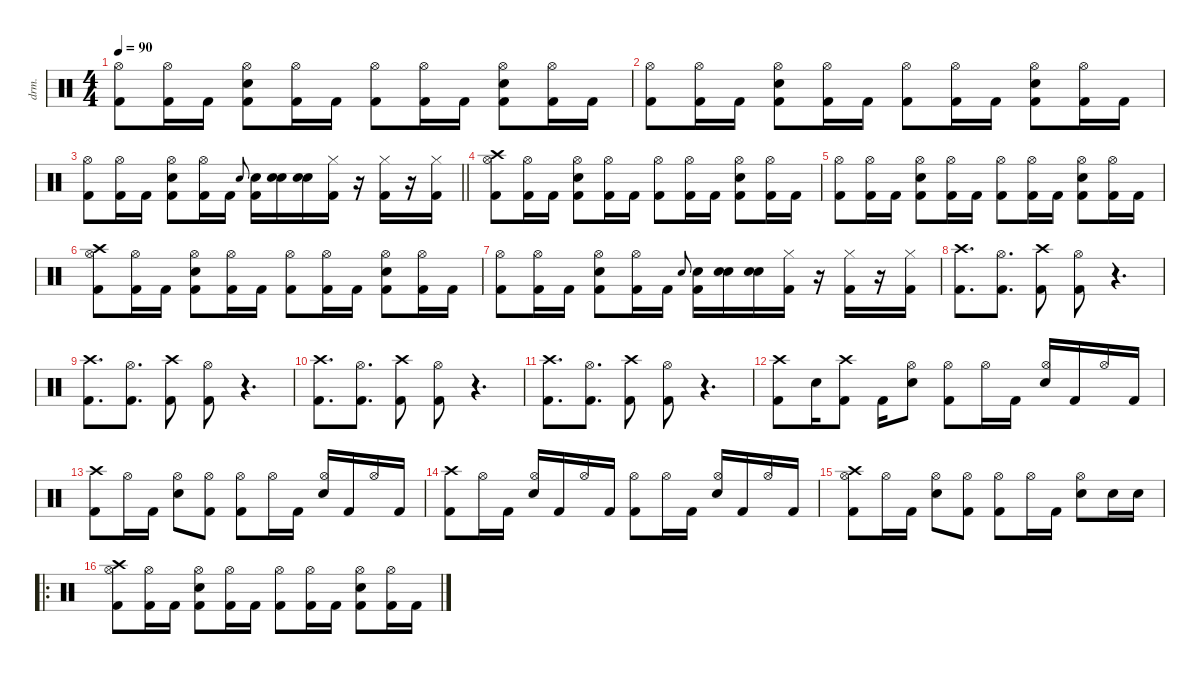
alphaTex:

\defaultSystemsLayout 4
\hideDynamics
\bracketExtendMode nobrackets
\otherSystemsTrackNameOrientation horizontal
\track ("Percussion " "drm.") {instrument percussion}
\staff {score}
\articulation defaults
\ts (4 4)
\tempo 90
\clef neutral
\ks c
("Hi-Hat (open)" "Kick (hit) 2").8{dy f beam Down} ("Hi-Hat (open)" "Kick (hit) 2").16{beam Down} "Kick (hit) 2".16{beam Down} ("Hi-Hat (open)" "Snare (hit) 2" "Kick (hit) 2").8{beam Down} ("Hi-Hat (open)" "Kick (hit) 2").16{beam Down} "Kick (hit) 2".16{beam Down} ("Hi-Hat (open)" "Kick (hit) 2").8{beam Down} ("Hi-Hat (open)" "Kick (hit) 2").16{beam Down} "Kick (hit) 2".16{beam Down} ("Hi-Hat (open)" "Snare (hit) 2" "Kick (hit) 2").8{beam Down} ("Hi-Hat (open)" "Kick (hit) 2").16{beam Down} "Kick (hit) 2".16{beam Down} |
("Hi-Hat (open)" "Kick (hit) 2").8{beam Down} ("Hi-Hat (open)" "Kick (hit) 2").16{beam Down} "Kick (hit) 2".16{beam Down} ("Hi-Hat (open)" "Snare (hit) 2" "Kick (hit) 2").8{beam Down} ("Hi-Hat (open)" "Kick (hit) 2").16{beam Down} "Kick (hit) 2".16{beam Down} ("Hi-Hat (open)" "Kick (hit) 2").8{beam Down} ("Hi-Hat (open)" "Kick (hit) 2").16{beam Down} "Kick (hit) 2".16{beam Down} ("Hi-Hat (open)" "Snare (hit) 2" "Kick (hit) 2").8{beam Down} ("Hi-Hat (open)" "Kick (hit) 2").16{beam Down} "Kick (hit) 2".16{beam Down} |
\barLineRight lightlight
("Hi-Hat (open)" "Kick (hit) 2").8{beam Down} ("Hi-Hat (open)" "Kick (hit) 2").16{beam Down} "Kick (hit) 2".16{beam Down} ("Hi-Hat (open)" "Snare (hit) 2" "Kick (hit) 2").8{beam Down} ("Hi-Hat (open)" "Kick (hit) 2").16{beam Down} "Kick (hit) 2".16{beam Down} "Snare (hit) 2".8{gr onbeat dy mf beam Up} ("Snare (hit) 2" "Kick (hit) 2").16{dy f beam Down} ("Snare (hit) 2" "Snare (hit) 2").16{beam Down} ("Snare (hit) 2" "Snare (hit) 2").16{beam Down} ("Hi-Hat (closed)" "Kick (hit) 2").16{beam Down} r.16{beam Down} ("Hi-Hat (closed)" "Kick (hit) 2").16{beam Down} r.16{beam Down} ("Hi-Hat (closed)" "Kick (hit) 2").16{beam Down} |
("Crash high (hit)" "Hi-Hat (open)" "Kick (hit) 2").8{beam Down} ("Hi-Hat (open)" "Kick (hit) 2").16{beam Down} "Kick (hit) 2".16{beam Down} ("Hi-Hat (open)" "Snare (hit) 2" "Kick (hit) 2").8{beam Down} ("Hi-Hat (open)" "Kick (hit) 2").16{beam Down} "Kick (hit) 2".16{beam Down} ("Hi-Hat (open)" "Kick (hit) 2").8{beam Down} ("Hi-Hat (open)" "Kick (hit) 2").16{beam Down} "Kick (hit) 2".16{beam Down} ("Hi-Hat (open)" "Snare (hit) 2" "Kick (hit) 2").8{beam Down} ("Hi-Hat (open)" "Kick (hit) 2").16{beam Down} "Kick (hit) 2".16{beam Down} |
("Hi-Hat (open)" "Kick (hit) 2").8{beam Down} ("Hi-Hat (open)" "Kick (hit) 2").16{beam Down} "Kick (hit) 2".16{beam Down} ("Hi-Hat (open)" "Snare (hit) 2" "Kick (hit) 2").8{beam Down} ("Hi-Hat (open)" "Kick (hit) 2").16{beam Down} "Kick (hit) 2".16{beam Down} ("Hi-Hat (open)" "Kick (hit) 2").8{beam Down} ("Hi-Hat (open)" "Kick (hit) 2").16{beam Down} "Kick (hit) 2".16{beam Down} ("Hi-Hat (open)" "Snare (hit) 2" "Kick (hit) 2").8{beam Down} ("Hi-Hat (open)" "Kick (hit) 2").16{beam Down} "Kick (hit) 2".16{beam Down} |
("Crash high (hit)" "Hi-Hat (open)" "Kick (hit) 2").8{beam Down} ("Hi-Hat (open)" "Kick (hit) 2").16{beam Down} "Kick (hit) 2".16{beam Down} ("Hi-Hat (open)" "Snare (hit) 2" "Kick (hit) 2").8{beam Down} ("Hi-Hat (open)" "Kick (hit) 2").16{beam Down} "Kick (hit) 2".16{beam Down} ("Hi-Hat (open)" "Kick (hit) 2").8{beam Down} ("Hi-Hat (open)" "Kick (hit) 2").16{beam Down} "Kick (hit) 2".16{beam Down} ("Hi-Hat (open)" "Snare (hit) 2" "Kick (hit) 2").8{beam Down} ("Hi-Hat (open)" "Kick (hit) 2").16{beam Down} "Kick (hit) 2".16{beam Down} |
("Hi-Hat (open)" "Kick (hit) 2").8{beam Down} ("Hi-Hat (open)" "Kick (hit) 2").16{beam Down} "Kick (hit) 2".16{beam Down} ("Hi-Hat (open)" "Snare (hit) 2" "Kick (hit) 2").8{beam Down} ("Hi-Hat (open)" "Kick (hit) 2").16{beam Down} "Kick (hit) 2".16{beam Down} "Snare (hit) 2".8{gr onbeat dy mf beam Up} ("Snare (hit) 2" "Kick (hit) 2").16{dy f beam Down} ("Snare (hit) 2" "Snare (hit) 2").16{beam Down} ("Snare (hit) 2" "Snare (hit) 2").16{beam Down} ("Hi-Hat (closed)" "Kick (hit) 2").16{beam Down} r.16{beam Down} ("Hi-Hat (closed)" "Kick (hit) 2").16{beam Down} r.16{beam Down} ("Hi-Hat (closed)" "Kick (hit) 2").16{beam Down} |
("Crash high (hit)" "Kick (hit) 2").8{d beam Down} ("Hi-Hat (open)" "Kick (hit) 2").8{d beam Down} ("Crash high (hit)" "Kick (hit) 2").8{beam Down} ("Hi-Hat (open)" "Kick (hit) 2").8{beam Down} r.4{d beam Down} |
("Crash high (hit)" "Kick (hit) 2").8{d beam Down} ("Hi-Hat (open)" "Kick (hit) 2").8{d beam Down} ("Crash high (hit)" "Kick (hit) 2").8{beam Down} ("Hi-Hat (open)" "Kick (hit) 2").8{beam Down} r.4{d beam Down} |
("Crash high (hit)" "Kick (hit) 2").8{d beam Down} ("Hi-Hat (open)" "Kick (hit) 2").8{d beam Down} ("Crash high (hit)" "Kick (hit) 2").8{beam Down} ("Hi-Hat (open)" "Kick (hit) 2").8{beam Down} r.4{d beam Down} |
("Crash high (hit)" "Kick (hit) 2").8{d beam Down} ("Hi-Hat (open)" "Kick (hit) 2").8{d beam Down} ("Crash high (hit)" "Kick (hit) 2").8{beam Down} ("Hi-Hat (open)" "Kick (hit) 2").8{beam Down} r.4{d beam Down} |
("Crash high (hit)" "Kick (hit) 2").8{beam Down} "Snare (hit) 2".16{beam Down} ("Crash high (hit)" "Kick (hit) 2").8{beam Down} "Kick (hit) 2".16{beam Down} ("Hi-Hat (open)" "Snare (hit) 2").8{beam Down} ("Hi-Hat (open)" "Kick (hit) 2").8{beam Down} "Hi-Hat (open)".16{beam Down} "Kick (hit) 2".16{beam Down} ("Hi-Hat (open)" "Snare (hit) 2").16{beam Up} "Kick (hit) 2".16{beam Up} "Hi-Hat (open)".16{beam Up} "Kick (hit) 2".16{beam Up} |
("Crash high (hit)" "Kick (hit) 2").8{beam Down} "Hi-Hat (open)".16{beam Down} "Kick (hit) 2".16{beam Down} ("Hi-Hat (open)" "Snare (hit) 2").8{beam Down} ("Hi-Hat (open)" "Kick (hit) 2").8{beam Down} ("Hi-Hat (open)" "Kick (hit) 2").8{beam Down} "Hi-Hat (open)".16{beam Down} "Kick (hit) 2".16{beam Down} ("Hi-Hat (open)" "Snare (hit) 2").16{beam Up} "Kick (hit) 2".16{beam Up} "Hi-Hat (open)".16{beam Up} "Kick (hit) 2".16{beam Up} |
("Crash high (hit)" "Kick (hit) 2").8{beam Down} "Hi-Hat (open)".16{beam Down} "Kick (hit) 2".16{beam Down} ("Hi-Hat (open)" "Snare (hit) 2").16{beam Up} "Kick (hit) 2".16{beam Up} "Hi-Hat (open)".16{beam Up} "Kick (hit) 2".16{beam Up} ("Hi-Hat (open)" "Kick (hit) 2").8{beam Down} "Hi-Hat (open)".16{beam Down} "Kick (hit) 2".16{beam Down} ("Hi-Hat (open)" "Snare (hit) 2").16{beam Up} "Kick (hit) 2".16{beam Up} "Hi-Hat (open)".16{beam Up} "Kick (hit) 2".16{beam Up} |
("Crash high (hit)" "Hi-Hat (open)" "Kick (hit) 2").8{beam Down} "Hi-Hat (open)".16{beam Down} "Kick (hit) 2".16{beam Down} ("Hi-Hat (open)" "Snare (hit) 2").8{beam Down} ("Hi-Hat (open)" "Kick (hit) 2").8{beam Down} ("Hi-Hat (open)" "Kick (hit) 2").8{beam Down} "Hi-Hat (open)".16{beam Down} "Kick (hit) 2".16{beam Down} ("Hi-Hat (open)" "Snare (hit) 2").8{beam Down} "Snare (hit) 2".16{beam Down} "Snare (hit) 2".16{beam Down} |
\ro
("Crash high (hit)" "Hi-Hat (open)" "Kick (hit) 2").8{beam Down} ("Hi-Hat (open)" "Kick (hit) 2").16{beam Down} "Kick (hit) 2".16{beam Down} ("Hi-Hat (open)" "Snare (hit) 2" "Kick (hit) 2").8{beam Down} ("Hi-Hat (open)" "Kick (hit) 2").16{beam Down} "Kick (hit) 2".16{beam Down} ("Hi-Hat (open)" "Kick (hit) 2").8{beam Down} ("Hi-Hat (open)" "Kick (hit) 2").16{beam Down} "Kick (hit) 2".16{beam Down} ("Hi-Hat (open)" "Snare (hit) 2" "Kick (hit) 2").8{beam Down} ("Hi-Hat (open)" "Kick (hit) 2").16{beam Down} "Kick (hit) 2".16{beam Down}
